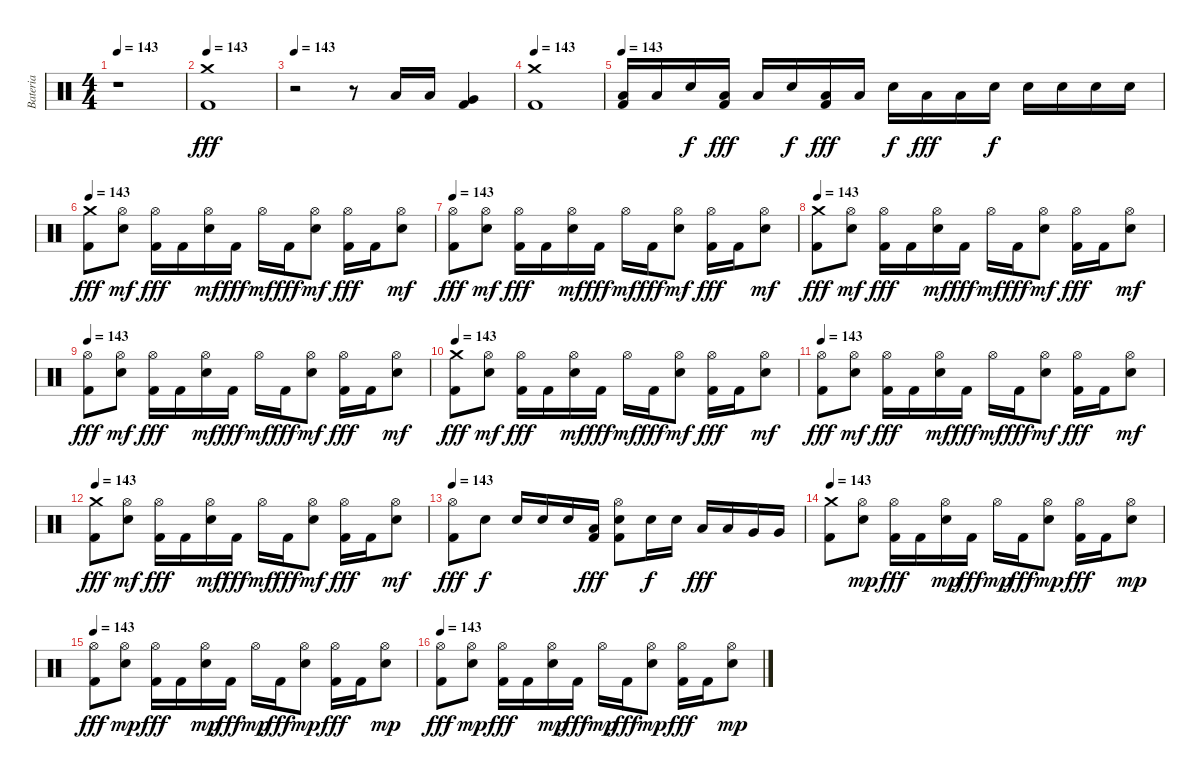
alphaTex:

\track ("Bateria" "Bateria") {instrument percussion}
\staff {score}
\articulation defaults
\ts (4 4)
\tempo 143
\clef neutral
\ks c
r.1{dy f} |
\tempo 143
("Crash medium (hit)" "Kick (hit) 2").1{dy fff} |
\tempo 143
r.2 r.8 "Low Tom (hit)".16 "Low Tom (hit)".16 ("Very Low Tom (hit)" "Kick (hit) 2").4 |
\tempo 143
("Crash medium (hit)" "Kick (hit) 2").1 |
\tempo 143
("Low Tom (hit)" "Kick (hit) 2").16 "Low Tom (hit)".16 "Electric Snare (hit)".16{dy f} ("Low Tom (hit)" "Kick (hit) 2").16{dy fff} "Low Tom (hit)".16 "Electric Snare (hit)".16{dy f} ("Low Tom (hit)" "Kick (hit) 2").16{dy fff} "Low Tom (hit)".16 "Electric Snare (hit)".16{dy f} "Low Tom (hit)".16{dy fff} "Low Tom (hit)".16 "Electric Snare (hit)".16{dy f} "Electric Snare (hit)".16 "Electric Snare (hit)".16 "Electric Snare (hit)".16 "Electric Snare (hit)".16 |
\tempo 143
("Crash medium (hit)" "Kick (hit) 2").8{dy fff} ("Hi-Hat (open)" "Electric Snare (hit)").8{dy mf} ("Hi-Hat (open)" "Kick (hit) 2").16{dy fff} "Kick (hit) 2".16 ("Hi-Hat (open)" "Electric Snare (hit)").16{dy mf} "Kick (hit) 2".16{dy fff} "Hi-Hat (open)".16{dy mf} "Kick (hit) 2".16{dy fff} ("Hi-Hat (open)" "Electric Snare (hit)").8{dy mf} ("Hi-Hat (open)" "Kick (hit) 2").16{dy fff} "Kick (hit) 2".16 ("Hi-Hat (open)" "Electric Snare (hit)").8{dy mf} |
\tempo 143
("Hi-Hat (open)" "Kick (hit) 2").8{dy fff} ("Hi-Hat (open)" "Electric Snare (hit)").8{dy mf} ("Hi-Hat (open)" "Kick (hit) 2").16{dy fff} "Kick (hit) 2".16 ("Hi-Hat (open)" "Electric Snare (hit)").16{dy mf} "Kick (hit) 2".16{dy fff} "Hi-Hat (open)".16{dy mf} "Kick (hit) 2".16{dy fff} ("Hi-Hat (open)" "Electric Snare (hit)").8{dy mf} ("Hi-Hat (open)" "Kick (hit) 2").16{dy fff} "Kick (hit) 2".16 ("Hi-Hat (open)" "Electric Snare (hit)").8{dy mf} |
\tempo 143
("Crash medium (hit)" "Kick (hit) 2").8{dy fff} ("Hi-Hat (open)" "Electric Snare (hit)").8{dy mf} ("Hi-Hat (open)" "Kick (hit) 2").16{dy fff} "Kick (hit) 2".16 ("Hi-Hat (open)" "Electric Snare (hit)").16{dy mf} "Kick (hit) 2".16{dy fff} "Hi-Hat (open)".16{dy mf} "Kick (hit) 2".16{dy fff} ("Hi-Hat (open)" "Electric Snare (hit)").8{dy mf} ("Hi-Hat (open)" "Kick (hit) 2").16{dy fff} "Kick (hit) 2".16 ("Hi-Hat (open)" "Electric Snare (hit)").8{dy mf} |
\tempo 143
("Hi-Hat (open)" "Kick (hit) 2").8{dy fff} ("Hi-Hat (open)" "Electric Snare (hit)").8{dy mf} ("Hi-Hat (open)" "Kick (hit) 2").16{dy fff} "Kick (hit) 2".16 ("Hi-Hat (open)" "Electric Snare (hit)").16{dy mf} "Kick (hit) 2".16{dy fff} "Hi-Hat (open)".16{dy mf} "Kick (hit) 2".16{dy fff} ("Hi-Hat (open)" "Electric Snare (hit)").8{dy mf} ("Hi-Hat (open)" "Kick (hit) 2").16{dy fff} "Kick (hit) 2".16 ("Hi-Hat (open)" "Electric Snare (hit)").8{dy mf} |
\tempo 143
("Crash medium (hit)" "Kick (hit) 2").8{dy fff} ("Hi-Hat (open)" "Electric Snare (hit)").8{dy mf} ("Hi-Hat (open)" "Kick (hit) 2").16{dy fff} "Kick (hit) 2".16 ("Hi-Hat (open)" "Electric Snare (hit)").16{dy mf} "Kick (hit) 2".16{dy fff} "Hi-Hat (open)".16{dy mf} "Kick (hit) 2".16{dy fff} ("Hi-Hat (open)" "Electric Snare (hit)").8{dy mf} ("Hi-Hat (open)" "Kick (hit) 2").16{dy fff} "Kick (hit) 2".16 ("Hi-Hat (open)" "Electric Snare (hit)").8{dy mf} |
\tempo 143
("Hi-Hat (open)" "Kick (hit) 2").8{dy fff} ("Hi-Hat (open)" "Electric Snare (hit)").8{dy mf} ("Hi-Hat (open)" "Kick (hit) 2").16{dy fff} "Kick (hit) 2".16 ("Hi-Hat (open)" "Electric Snare (hit)").16{dy mf} "Kick (hit) 2".16{dy fff} "Hi-Hat (open)".16{dy mf} "Kick (hit) 2".16{dy fff} ("Hi-Hat (open)" "Electric Snare (hit)").8{dy mf} ("Hi-Hat (open)" "Kick (hit) 2").16{dy fff} "Kick (hit) 2".16 ("Hi-Hat (open)" "Electric Snare (hit)").8{dy mf} |
\tempo 143
("Crash medium (hit)" "Kick (hit) 2").8{dy fff} ("Hi-Hat (open)" "Electric Snare (hit)").8{dy mf} ("Hi-Hat (open)" "Kick (hit) 2").16{dy fff} "Kick (hit) 2".16 ("Hi-Hat (open)" "Electric Snare (hit)").16{dy mf} "Kick (hit) 2".16{dy fff} "Hi-Hat (open)".16{dy mf} "Kick (hit) 2".16{dy fff} ("Hi-Hat (open)" "Electric Snare (hit)").8{dy mf} ("Hi-Hat (open)" "Kick (hit) 2").16{dy fff} "Kick (hit) 2".16 ("Hi-Hat (open)" "Electric Snare (hit)").8{dy mf} |
\tempo 143
("Hi-Hat (open)" "Kick (hit) 2").8{dy fff} "Electric Snare (hit)".8{dy f} "Electric Snare (hit)".16 "Electric Snare (hit)".16 "Electric Snare (hit)".16 ("Low Tom (hit)" "Kick (hit) 2").16{dy fff} ("Hi-Hat (open)" "Electric Snare (hit)" "Kick (hit) 2").8 "Electric Snare (hit)".16{dy f} "Electric Snare (hit)".16 "Low Tom (hit)".16{dy fff} "Low Tom (hit)".16 "Very Low Tom (hit)".16 "Very Low Tom (hit)".16 |
\tempo 143
("Crash medium (hit)" "Kick (hit) 2").8 ("Hi-Hat (open)" "Electric Snare (hit)").8{dy mp} ("Hi-Hat (open)" "Kick (hit) 2").16{dy fff} "Kick (hit) 2".16 ("Hi-Hat (open)" "Electric Snare (hit)").16{dy mp} "Kick (hit) 2".16{dy fff} "Hi-Hat (open)".16{dy mp} "Kick (hit) 2".16{dy fff} ("Hi-Hat (open)" "Electric Snare (hit)").8{dy mp} ("Hi-Hat (open)" "Kick (hit) 2").16{dy fff} "Kick (hit) 2".16 ("Hi-Hat (open)" "Electric Snare (hit)").8{dy mp} |
\tempo 143
("Hi-Hat (open)" "Kick (hit) 2").8{dy fff} ("Hi-Hat (open)" "Electric Snare (hit)").8{dy mp} ("Hi-Hat (open)" "Kick (hit) 2").16{dy fff} "Kick (hit) 2".16 ("Hi-Hat (open)" "Electric Snare (hit)").16{dy mp} "Kick (hit) 2".16{dy fff} "Hi-Hat (open)".16{dy mp} "Kick (hit) 2".16{dy fff} ("Hi-Hat (open)" "Electric Snare (hit)").8{dy mp} ("Hi-Hat (open)" "Kick (hit) 2").16{dy fff} "Kick (hit) 2".16 ("Hi-Hat (open)" "Electric Snare (hit)").8{dy mp} |
\tempo 143
("Hi-Hat (open)" "Kick (hit) 2").8{dy fff} ("Hi-Hat (open)" "Electric Snare (hit)").8{dy mp} ("Hi-Hat (open)" "Kick (hit) 2").16{dy fff} "Kick (hit) 2".16 ("Hi-Hat (open)" "Electric Snare (hit)").16{dy mp} "Kick (hit) 2".16{dy fff} "Hi-Hat (open)".16{dy mp} "Kick (hit) 2".16{dy fff} ("Hi-Hat (open)" "Electric Snare (hit)").8{dy mp} ("Hi-Hat (open)" "Kick (hit) 2").16{dy fff} "Kick (hit) 2".16 ("Hi-Hat (open)" "Electric Snare (hit)").8{dy mp}
